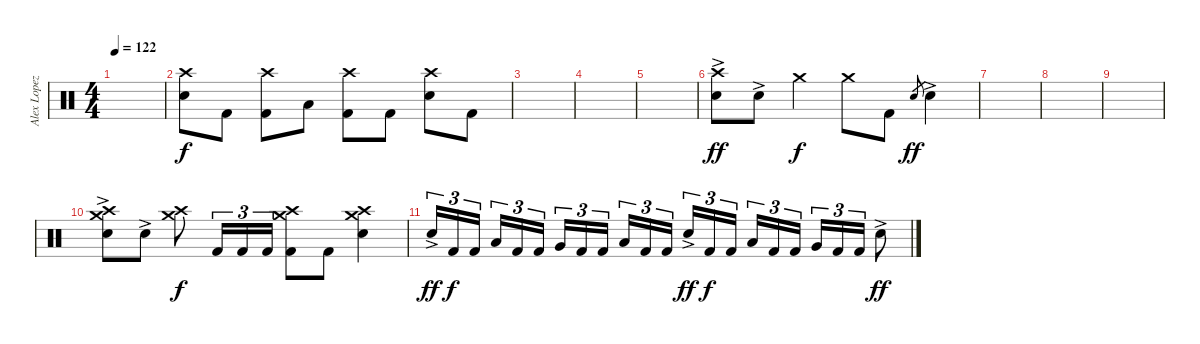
\track ("Alex Lopez" "Alex Lopez") {instrument percussion}
\staff {score}
\articulation defaults
\ts (4 4)
\tempo 122
\clef neutral
\ks c
|
("Crash high (hit)" "Electric Snare (hit)").8{dy f balance 16} "Kick (hit) 2".8 ("Crash high (hit)" "Kick (hit) 2").8 "Low Floor Tom (hit)".8 ("Crash high (hit)" "Kick (hit) 2").8 "Kick (hit) 2".8 ("Crash high (hit)" "Electric Snare (hit)").8 "Kick (hit) 2".8 |
|
|
|
("Crash high (hit)" "Electric Snare (hit)"{ac}).8{dy ff balance 16} "Electric Snare (hit)"{ac}.8 "Crash medium (hit)".4{dy f} "Crash medium (hit)".8 "Kick (hit) 2".8 "Snare (hit) 2".8{gr dy ff} "Snare (hit) 2"{ac}.4 |
|
|
|
("Crash high (hit)" "Crash medium (hit)" "Snare (hit) 2"{ac}).8{balance 16} "Snare (hit) 2"{ac}.8 ("Crash high (hit)" "Crash medium (hit)").8{dy f} "Kick (hit) 2".16{tu (3 2)} "Kick (hit) 2".16{tu (3 2)} "Kick (hit) 2".16{tu (3 2)} ("Crash medium (hit)" "Crash high (hit)" "Kick (hit) 2").8 "Kick (hit) 2".8 ("Crash medium (hit)" "Crash high (hit)" "Snare (hit) 2").4 |
"Electric Snare (hit)"{ac}.16{tu (3 2) dy ff balance 8} "Kick (hit) 2".16{tu (3 2) dy f} "Kick (hit) 2".16{tu (3 2) beam splitsecondary} "Low Tom (hit)".16{tu (3 2)} "Kick (hit) 2".16{tu (3 2)} "Kick (hit) 2".16{tu (3 2)} "Very Low Tom (hit)".16{tu (3 2)} "Kick (hit) 2".16{tu (3 2)} "Kick (hit) 2".16{tu (3 2) beam splitsecondary} "Low Floor Tom (hit)".16{tu (3 2)} "Kick (hit) 2".16{tu (3 2)} "Kick (hit) 2".16{tu (3 2)} "Electric Snare (hit)"{ac}.16{tu (3 2) dy ff balance 8} "Kick (hit) 2".16{tu (3 2) dy f} "Kick (hit) 2".16{tu (3 2) beam splitsecondary} "Low Tom (hit)".16{tu (3 2)} "Kick (hit) 2".16{tu (3 2)} "Kick (hit) 2".16{tu (3 2)} "Very Low Tom (hit)".16{tu (3 2)} "Kick (hit) 2".16{tu (3 2)} "Kick (hit) 2".16{tu (3 2)} "Electric Snare (hit)"{ac}.8{dy ff}
